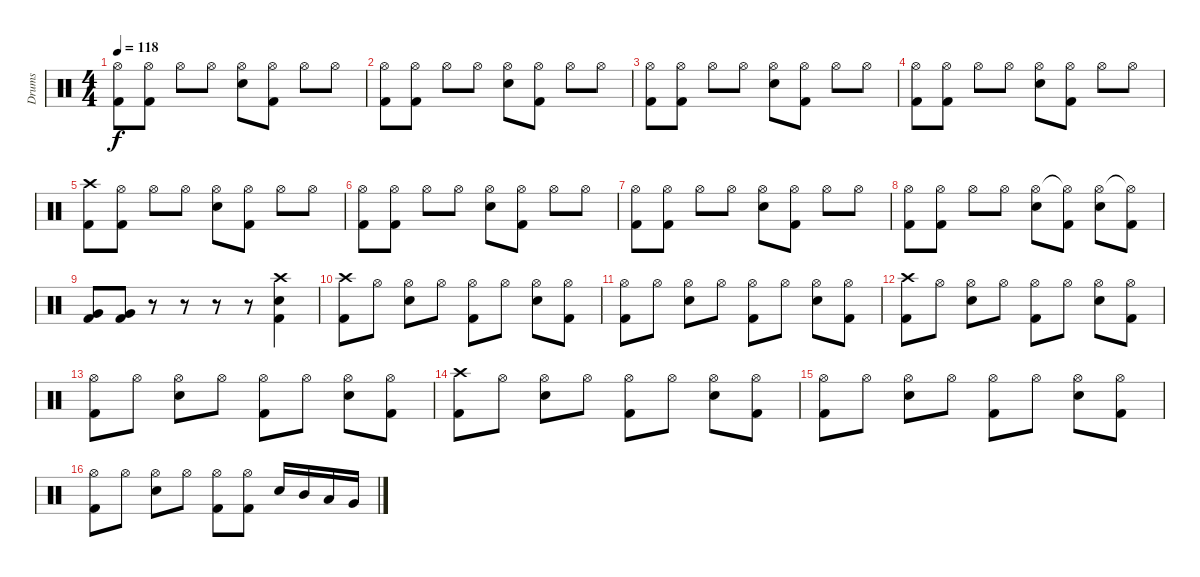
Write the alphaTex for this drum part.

\track ("Drums" "Drums") {instrument percussion}
\staff {score}
\articulation defaults
\ts (4 4)
\tempo 118
\clef neutral
\ks c
("Hi-Hat (open)" "Kick (hit) 2").8{dy f} ("Hi-Hat (open)" "Kick (hit) 2").8 "Hi-Hat (open)".8 "Hi-Hat (open)".8 ("Hi-Hat (open)" "Snare (hit) 2").8 ("Hi-Hat (open)" "Kick (hit) 2").8 "Hi-Hat (open)".8 "Hi-Hat (open)".8 |
("Hi-Hat (open)" "Kick (hit) 2").8 ("Hi-Hat (open)" "Kick (hit) 2").8 "Hi-Hat (open)".8 "Hi-Hat (open)".8 ("Hi-Hat (open)" "Snare (hit) 2").8 ("Hi-Hat (open)" "Kick (hit) 2").8 "Hi-Hat (open)".8 "Hi-Hat (open)".8 |
("Hi-Hat (open)" "Kick (hit) 2").8 ("Hi-Hat (open)" "Kick (hit) 2").8 "Hi-Hat (open)".8 "Hi-Hat (open)".8 ("Hi-Hat (open)" "Snare (hit) 2").8 ("Hi-Hat (open)" "Kick (hit) 2").8 "Hi-Hat (open)".8 "Hi-Hat (open)".8 |
("Hi-Hat (open)" "Kick (hit) 2").8 ("Hi-Hat (open)" "Kick (hit) 2").8 "Hi-Hat (open)".8 "Hi-Hat (open)".8 ("Hi-Hat (open)" "Snare (hit) 2").8 ("Hi-Hat (open)" "Kick (hit) 2").8 "Hi-Hat (open)".8 "Hi-Hat (open)".8 |
("Crash high (hit)" "Kick (hit) 2").8 ("Hi-Hat (open)" "Kick (hit) 2").8 "Hi-Hat (open)".8 "Hi-Hat (open)".8 ("Hi-Hat (open)" "Snare (hit) 2").8 ("Hi-Hat (open)" "Kick (hit) 2").8 "Hi-Hat (open)".8 "Hi-Hat (open)".8 |
("Hi-Hat (open)" "Kick (hit) 2").8 ("Hi-Hat (open)" "Kick (hit) 2").8 "Hi-Hat (open)".8 "Hi-Hat (open)".8 ("Hi-Hat (open)" "Snare (hit) 2").8 ("Hi-Hat (open)" "Kick (hit) 2").8 "Hi-Hat (open)".8 "Hi-Hat (open)".8 |
("Hi-Hat (open)" "Kick (hit) 2").8 ("Hi-Hat (open)" "Kick (hit) 2").8 "Hi-Hat (open)".8 "Hi-Hat (open)".8 ("Hi-Hat (open)" "Snare (hit) 2").8 ("Hi-Hat (open)" "Kick (hit) 2").8 "Hi-Hat (open)".8 "Hi-Hat (open)".8 |
("Hi-Hat (open)" "Kick (hit) 2").8 ("Hi-Hat (open)" "Kick (hit) 2").8 "Hi-Hat (open)".8 "Hi-Hat (open)".8 ("Hi-Hat (open)" "Snare (hit) 2").8 ("Hi-Hat (open)"{t} "Kick (hit) 2").8 ("Hi-Hat (open)" "Snare (hit) 2").8 ("Hi-Hat (open)"{t} "Kick (hit) 2").8 |
("Very Low Tom (hit)" "Kick (hit) 2").8 ("Very Low Tom (hit)" "Kick (hit) 2").8 r.8 r.8 r.8 r.8 ("Crash high (hit)" "Snare (hit) 2" "Kick (hit) 2").4 |
("Crash high (hit)" "Kick (hit) 2").8 "Hi-Hat (open)".8 ("Hi-Hat (open)" "Snare (hit) 2").8 "Hi-Hat (open)".8 ("Hi-Hat (open)" "Kick (hit) 2").8 "Hi-Hat (open)".8 ("Hi-Hat (open)" "Snare (hit) 2").8 ("Hi-Hat (open)" "Kick (hit) 2").8 |
("Hi-Hat (open)" "Kick (hit) 2").8 "Hi-Hat (open)".8 ("Hi-Hat (open)" "Snare (hit) 2").8 "Hi-Hat (open)".8 ("Hi-Hat (open)" "Kick (hit) 2").8 "Hi-Hat (open)".8 ("Hi-Hat (open)" "Snare (hit) 2").8 ("Hi-Hat (open)" "Kick (hit) 2").8 |
("Crash high (hit)" "Kick (hit) 2").8 "Hi-Hat (open)".8 ("Hi-Hat (open)" "Snare (hit) 2").8 "Hi-Hat (open)".8 ("Hi-Hat (open)" "Kick (hit) 2").8 "Hi-Hat (open)".8 ("Hi-Hat (open)" "Snare (hit) 2").8 ("Hi-Hat (open)" "Kick (hit) 2").8 |
("Hi-Hat (open)" "Kick (hit) 2").8 "Hi-Hat (open)".8 ("Hi-Hat (open)" "Snare (hit) 2").8 "Hi-Hat (open)".8 ("Hi-Hat (open)" "Kick (hit) 2").8 "Hi-Hat (open)".8 ("Hi-Hat (open)" "Snare (hit) 2").8 ("Hi-Hat (open)" "Kick (hit) 2").8 |
("Crash high (hit)" "Kick (hit) 2").8 "Hi-Hat (open)".8 ("Hi-Hat (open)" "Snare (hit) 2").8 "Hi-Hat (open)".8 ("Hi-Hat (open)" "Kick (hit) 2").8 "Hi-Hat (open)".8 ("Hi-Hat (open)" "Snare (hit) 2").8 ("Hi-Hat (open)" "Kick (hit) 2").8 |
("Hi-Hat (open)" "Kick (hit) 2").8 "Hi-Hat (open)".8 ("Hi-Hat (open)" "Snare (hit) 2").8 "Hi-Hat (open)".8 ("Hi-Hat (open)" "Kick (hit) 2").8 "Hi-Hat (open)".8 ("Hi-Hat (open)" "Snare (hit) 2").8 ("Hi-Hat (open)" "Kick (hit) 2").8 |
("Hi-Hat (open)" "Kick (hit) 2").8 "Hi-Hat (open)".8 ("Hi-Hat (open)" "Snare (hit) 2").8 "Hi-Hat (open)".8 ("Hi-Hat (open)" "Kick (hit) 2").8 ("Hi-Hat (open)" "Kick (hit) 2").8 "Snare (hit) 2".16 "Mid Tom (hit)".16 "Low Tom (hit)".16 "Very Low Tom (hit)".16
